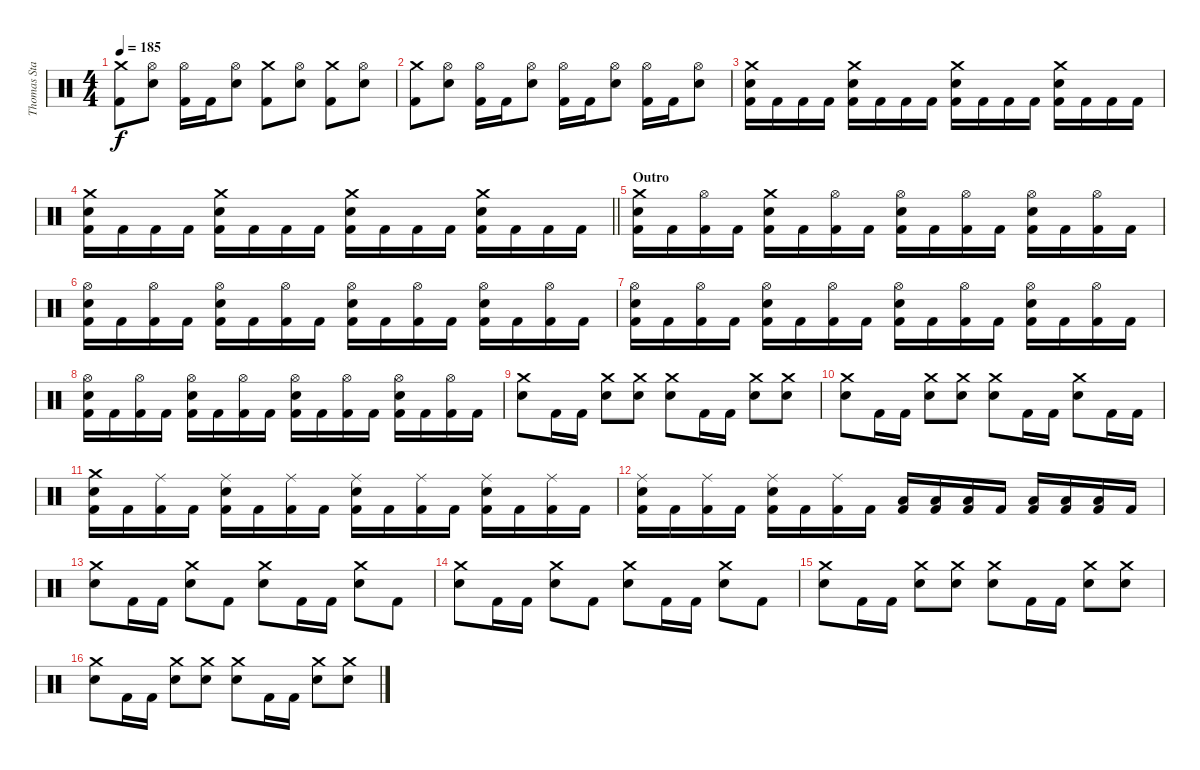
\track ("Thomas Stauch" "Thomas Sta") {instrument percussion}
\staff {score}
\articulation defaults
\ts (4 4)
\tempo 185
\clef neutral
\ks c
("Crash medium (hit)" "Kick (hit) 2").8{dy f} ("Hi-Hat (open)" "Electric Snare (hit)").8 ("Hi-Hat (open)" "Kick (hit) 2").16 "Kick (hit) 2".16 ("Hi-Hat (open)" "Electric Snare (hit)").8 ("Crash medium (hit)" "Kick (hit) 2").8 ("Hi-Hat (open)" "Electric Snare (hit)").8 ("Crash medium (hit)" "Kick (hit) 2").8 ("Hi-Hat (open)" "Electric Snare (hit)").8 |
("Crash medium (hit)" "Kick (hit) 2").8 ("Hi-Hat (open)" "Electric Snare (hit)").8 ("Hi-Hat (open)" "Kick (hit) 2").16 "Kick (hit) 2".16 ("Hi-Hat (open)" "Electric Snare (hit)").8 ("Hi-Hat (open)" "Kick (hit) 2").16 "Kick (hit) 2".16 ("Hi-Hat (open)" "Electric Snare (hit)").8 ("Hi-Hat (open)" "Kick (hit) 2").16 "Kick (hit) 2".16 ("Hi-Hat (open)" "Electric Snare (hit)").8 |
("Crash medium (hit)" "Electric Snare (hit)" "Kick (hit) 2").16 "Kick (hit) 2".16 "Kick (hit) 2".16 "Kick (hit) 2".16 ("Crash medium (hit)" "Electric Snare (hit)" "Kick (hit) 2").16 "Kick (hit) 2".16 "Kick (hit) 2".16 "Kick (hit) 2".16 ("Crash medium (hit)" "Electric Snare (hit)" "Kick (hit) 2").16 "Kick (hit) 2".16 "Kick (hit) 2".16 "Kick (hit) 2".16 ("Crash medium (hit)" "Electric Snare (hit)" "Kick (hit) 2").16 "Kick (hit) 2".16 "Kick (hit) 2".16 "Kick (hit) 2".16 |
\barLineRight lightlight
("Crash medium (hit)" "Electric Snare (hit)" "Kick (hit) 2").16 "Kick (hit) 2".16 "Kick (hit) 2".16 "Kick (hit) 2".16 ("Crash medium (hit)" "Electric Snare (hit)" "Kick (hit) 2").16 "Kick (hit) 2".16 "Kick (hit) 2".16 "Kick (hit) 2".16 ("Crash medium (hit)" "Electric Snare (hit)" "Kick (hit) 2").16 "Kick (hit) 2".16 "Kick (hit) 2".16 "Kick (hit) 2".16 ("Crash medium (hit)" "Electric Snare (hit)" "Kick (hit) 2").16 "Kick (hit) 2".16 "Kick (hit) 2".16 "Kick (hit) 2".16 |
\section ("" "Outro")
("Crash medium (hit)" "Electric Snare (hit)" "Kick (hit) 2").16 "Kick (hit) 2".16 ("Hi-Hat (open)" "Kick (hit) 2").16 "Kick (hit) 2".16 ("Crash medium (hit)" "Electric Snare (hit)" "Kick (hit) 2").16 "Kick (hit) 2".16 ("Hi-Hat (open)" "Kick (hit) 2").16 "Kick (hit) 2".16 ("Hi-Hat (open)" "Electric Snare (hit)" "Kick (hit) 2").16 "Kick (hit) 2".16 ("Hi-Hat (open)" "Kick (hit) 2").16 "Kick (hit) 2".16 ("Hi-Hat (open)" "Electric Snare (hit)" "Kick (hit) 2").16 "Kick (hit) 2".16 ("Hi-Hat (open)" "Kick (hit) 2").16 "Kick (hit) 2".16 |
("Hi-Hat (open)" "Electric Snare (hit)" "Kick (hit) 2").16 "Kick (hit) 2".16 ("Hi-Hat (open)" "Kick (hit) 2").16 "Kick (hit) 2".16 ("Hi-Hat (open)" "Electric Snare (hit)" "Kick (hit) 2").16 "Kick (hit) 2".16 ("Hi-Hat (open)" "Kick (hit) 2").16 "Kick (hit) 2".16 ("Hi-Hat (open)" "Electric Snare (hit)" "Kick (hit) 2").16 "Kick (hit) 2".16 ("Hi-Hat (open)" "Kick (hit) 2").16 "Kick (hit) 2".16 ("Hi-Hat (open)" "Electric Snare (hit)" "Kick (hit) 2").16 "Kick (hit) 2".16 ("Hi-Hat (open)" "Kick (hit) 2").16 "Kick (hit) 2".16 |
("Hi-Hat (open)" "Electric Snare (hit)" "Kick (hit) 2").16 "Kick (hit) 2".16 ("Hi-Hat (open)" "Kick (hit) 2").16 "Kick (hit) 2".16 ("Hi-Hat (open)" "Electric Snare (hit)" "Kick (hit) 2").16 "Kick (hit) 2".16 ("Hi-Hat (open)" "Kick (hit) 2").16 "Kick (hit) 2".16 ("Hi-Hat (open)" "Electric Snare (hit)" "Kick (hit) 2").16 "Kick (hit) 2".16 ("Hi-Hat (open)" "Kick (hit) 2").16 "Kick (hit) 2".16 ("Hi-Hat (open)" "Electric Snare (hit)" "Kick (hit) 2").16 "Kick (hit) 2".16 ("Hi-Hat (open)" "Kick (hit) 2").16 "Kick (hit) 2".16 |
("Hi-Hat (open)" "Electric Snare (hit)" "Kick (hit) 2").16 "Kick (hit) 2".16 ("Hi-Hat (open)" "Kick (hit) 2").16 "Kick (hit) 2".16 ("Hi-Hat (open)" "Electric Snare (hit)" "Kick (hit) 2").16 "Kick (hit) 2".16 ("Hi-Hat (open)" "Kick (hit) 2").16 "Kick (hit) 2".16 ("Hi-Hat (open)" "Electric Snare (hit)" "Kick (hit) 2").16 "Kick (hit) 2".16 ("Hi-Hat (open)" "Kick (hit) 2").16 "Kick (hit) 2".16 ("Hi-Hat (open)" "Electric Snare (hit)" "Kick (hit) 2").16 "Kick (hit) 2".16 ("Hi-Hat (open)" "Kick (hit) 2").16 "Kick (hit) 2".16 |
("Crash medium (hit)" "Electric Snare (hit)").8 "Kick (hit) 2".16 "Kick (hit) 2".16 ("Crash medium (hit)" "Electric Snare (hit)").8 ("Crash medium (hit)" "Electric Snare (hit)").8 ("Crash medium (hit)" "Electric Snare (hit)").8 "Kick (hit) 2".16 "Kick (hit) 2".16 ("Crash medium (hit)" "Electric Snare (hit)").8 ("Crash medium (hit)" "Electric Snare (hit)").8 |
("Crash medium (hit)" "Electric Snare (hit)").8 "Kick (hit) 2".16 "Kick (hit) 2".16 ("Crash medium (hit)" "Electric Snare (hit)").8 ("Crash medium (hit)" "Electric Snare (hit)").8 ("Crash medium (hit)" "Electric Snare (hit)").8 "Kick (hit) 2".16 "Kick (hit) 2".16 ("Crash medium (hit)" "Electric Snare (hit)").8 "Kick (hit) 2".16 "Kick (hit) 2".16 |
("Crash medium (hit)" "Electric Snare (hit)" "Kick (hit) 2").16 "Kick (hit) 2".16 ("Ride (middle)" "Kick (hit) 2").16 "Kick (hit) 2".16 ("Ride (middle)" "Electric Snare (hit)" "Kick (hit) 2").16 "Kick (hit) 2".16 ("Ride (middle)" "Kick (hit) 2").16 "Kick (hit) 2".16 ("Ride (middle)" "Electric Snare (hit)" "Kick (hit) 2").16 "Kick (hit) 2".16 ("Ride (middle)" "Kick (hit) 2").16 "Kick (hit) 2".16 ("Ride (middle)" "Electric Snare (hit)" "Kick (hit) 2").16 "Kick (hit) 2".16 ("Ride (middle)" "Kick (hit) 2").16 "Kick (hit) 2".16 |
("Ride (middle)" "Electric Snare (hit)" "Kick (hit) 2").16 "Kick (hit) 2".16 ("Ride (middle)" "Kick (hit) 2").16 "Kick (hit) 2".16 ("Ride (middle)" "Electric Snare (hit)" "Kick (hit) 2").16 "Kick (hit) 2".16 ("Ride (middle)" "Kick (hit) 2").16 "Kick (hit) 2".16 ("Low Tom (hit)" "Kick (hit) 2").16 ("Low Tom (hit)" "Kick (hit) 2").16 ("Low Tom (hit)" "Kick (hit) 2").16 "Kick (hit) 2".16 ("Low Tom (hit)" "Kick (hit) 2").16 ("Low Tom (hit)" "Kick (hit) 2").16 ("Low Tom (hit)" "Kick (hit) 2").16 "Kick (hit) 2".16 |
("Crash medium (hit)" "Electric Snare (hit)").8 "Kick (hit) 2".16 "Kick (hit) 2".16 ("Crash medium (hit)" "Electric Snare (hit)").8 "Kick (hit) 2".8 ("Crash medium (hit)" "Electric Snare (hit)").8 "Kick (hit) 2".16 "Kick (hit) 2".16 ("Crash medium (hit)" "Electric Snare (hit)").8 "Kick (hit) 2".8 |
("Crash medium (hit)" "Electric Snare (hit)").8 "Kick (hit) 2".16 "Kick (hit) 2".16 ("Crash medium (hit)" "Electric Snare (hit)").8 "Kick (hit) 2".8 ("Crash medium (hit)" "Electric Snare (hit)").8 "Kick (hit) 2".16 "Kick (hit) 2".16 ("Crash medium (hit)" "Electric Snare (hit)").8 "Kick (hit) 2".8 |
("Crash medium (hit)" "Electric Snare (hit)").8 "Kick (hit) 2".16 "Kick (hit) 2".16 ("Crash medium (hit)" "Electric Snare (hit)").8 ("Crash medium (hit)" "Electric Snare (hit)").8 ("Crash medium (hit)" "Electric Snare (hit)").8 "Kick (hit) 2".16 "Kick (hit) 2".16 ("Crash medium (hit)" "Electric Snare (hit)").8 ("Crash medium (hit)" "Electric Snare (hit)").8 |
("Crash medium (hit)" "Electric Snare (hit)").8 "Kick (hit) 2".16 "Kick (hit) 2".16 ("Crash medium (hit)" "Electric Snare (hit)").8 ("Crash medium (hit)" "Electric Snare (hit)").8 ("Crash medium (hit)" "Electric Snare (hit)").8 "Kick (hit) 2".16 "Kick (hit) 2".16 ("Crash medium (hit)" "Electric Snare (hit)").8 ("Crash medium (hit)" "Electric Snare (hit)").8
